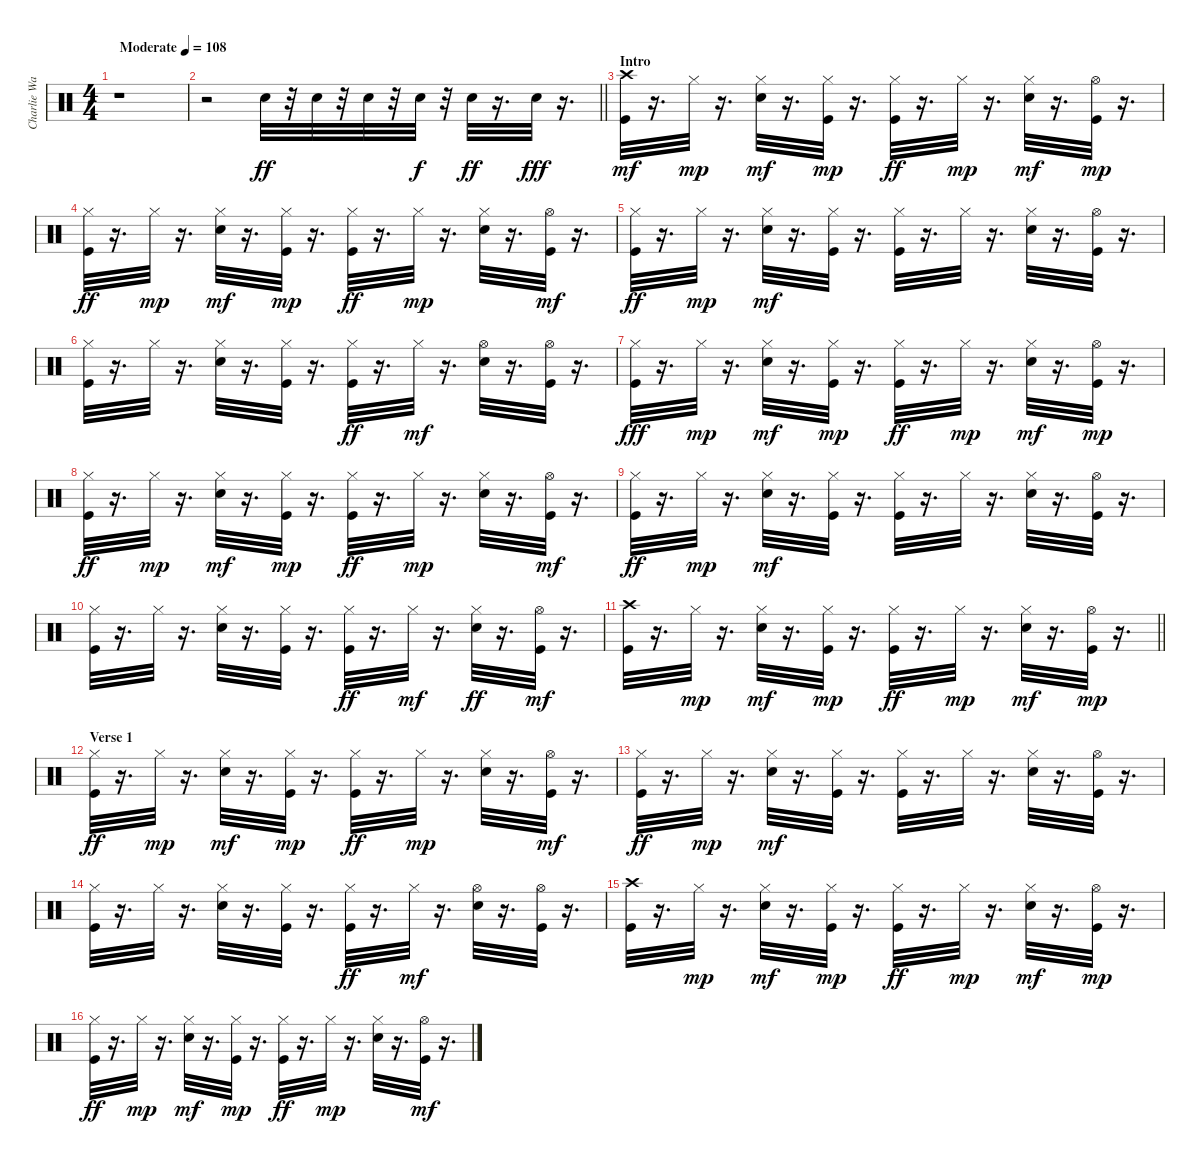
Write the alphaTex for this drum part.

\track ("Charlie Watts" "Charlie Wa") {instrument percussion}
\staff {score}
\articulation defaults
\ts (4 4)
\tempo (108 "Moderate")
\clef neutral
\ks c
r.1{dy ff} |
\barLineRight lightlight
r.2 "Electric Snare (hit)".32 r.32 "Electric Snare (hit)".32 r.32 "Electric Snare (hit)".32 r.32 "Electric Snare (hit)".32{dy f} r.32 "Electric Snare (hit)".32{dy ff} r.16{d} "Electric Snare (hit)".32{dy fff} r.16{d} |
\section ("" "Intro")
("Kick (hit)" "Crash high (hit)").32{dy mf} r.16{d} "Hi-Hat (closed)".32{dy mp} r.16{d} ("Electric Snare (hit)" "Hi-Hat (closed)").32{dy mf} r.16{d} ("Kick (hit)" "Hi-Hat (closed)").32{dy mp} r.16{d} ("Kick (hit)" "Hi-Hat (closed)").32{dy ff} r.16{d} "Hi-Hat (closed)".32{dy mp} r.16{d} ("Electric Snare (hit)" "Hi-Hat (closed)").32{dy mf} r.16{d} ("Kick (hit)" "Hi-Hat (open)").32{dy mp} r.16{d} |
("Kick (hit)" "Hi-Hat (closed)").32{dy ff} r.16{d} "Hi-Hat (closed)".32{dy mp} r.16{d} ("Electric Snare (hit)" "Hi-Hat (closed)").32{dy mf} r.16{d} ("Kick (hit)" "Hi-Hat (closed)").32{dy mp} r.16{d} ("Kick (hit)" "Hi-Hat (closed)").32{dy ff} r.16{d} "Hi-Hat (closed)".32{dy mp} r.16{d} ("Electric Snare (hit)" "Hi-Hat (closed)").32 r.16{d} ("Kick (hit)" "Hi-Hat (open)").32{dy mf} r.16{d} |
("Kick (hit)" "Hi-Hat (closed)").32{dy ff} r.16{d} "Hi-Hat (closed)".32{dy mp} r.16{d} ("Electric Snare (hit)" "Hi-Hat (closed)").32{dy mf} r.16{d} ("Kick (hit)" "Hi-Hat (closed)").32 r.16{d} ("Kick (hit)" "Hi-Hat (closed)").32 r.16{d} "Hi-Hat (closed)".32 r.16{d} ("Electric Snare (hit)" "Hi-Hat (closed)").32 r.16{d} ("Kick (hit)" "Hi-Hat (open)").32 r.16{d} |
("Kick (hit)" "Hi-Hat (closed)").32 r.16{d} "Hi-Hat (closed)".32 r.16{d} ("Electric Snare (hit)" "Hi-Hat (closed)").32 r.16{d} ("Kick (hit)" "Hi-Hat (closed)").32 r.16{d} ("Kick (hit)" "Hi-Hat (closed)").32{dy ff} r.16{d} "Hi-Hat (closed)".32{dy mf} r.16{d} ("Electric Snare (hit)" "Hi-Hat (open)").32 r.16{d} ("Kick (hit)" "Hi-Hat (open)").32 r.16{d} |
("Kick (hit)" "Hi-Hat (closed)").32{dy fff} r.16{d} "Hi-Hat (closed)".32{dy mp} r.16{d} ("Electric Snare (hit)" "Hi-Hat (closed)").32{dy mf} r.16{d} ("Kick (hit)" "Hi-Hat (closed)").32{dy mp} r.16{d} ("Kick (hit)" "Hi-Hat (closed)").32{dy ff} r.16{d} "Hi-Hat (closed)".32{dy mp} r.16{d} ("Electric Snare (hit)" "Hi-Hat (closed)").32{dy mf} r.16{d} ("Kick (hit)" "Hi-Hat (open)").32{dy mp} r.16{d} |
("Kick (hit)" "Hi-Hat (closed)").32{dy ff} r.16{d} "Hi-Hat (closed)".32{dy mp} r.16{d} ("Electric Snare (hit)" "Hi-Hat (closed)").32{dy mf} r.16{d} ("Kick (hit)" "Hi-Hat (closed)").32{dy mp} r.16{d} ("Kick (hit)" "Hi-Hat (closed)").32{dy ff} r.16{d} "Hi-Hat (closed)".32{dy mp} r.16{d} ("Electric Snare (hit)" "Hi-Hat (closed)").32 r.16{d} ("Kick (hit)" "Hi-Hat (open)").32{dy mf} r.16{d} |
("Kick (hit)" "Hi-Hat (closed)").32{dy ff} r.16{d} "Hi-Hat (closed)".32{dy mp} r.16{d} ("Electric Snare (hit)" "Hi-Hat (closed)").32{dy mf} r.16{d} ("Kick (hit)" "Hi-Hat (closed)").32 r.16{d} ("Kick (hit)" "Hi-Hat (closed)").32 r.16{d} "Hi-Hat (closed)".32 r.16{d} ("Electric Snare (hit)" "Hi-Hat (closed)").32 r.16{d} ("Kick (hit)" "Hi-Hat (open)").32 r.16{d} |
("Kick (hit)" "Hi-Hat (closed)").32 r.16{d} "Hi-Hat (closed)".32 r.16{d} ("Electric Snare (hit)" "Hi-Hat (closed)").32 r.16{d} ("Kick (hit)" "Hi-Hat (closed)").32 r.16{d} ("Kick (hit)" "Hi-Hat (closed)").32{dy ff} r.16{d} "Hi-Hat (closed)".32{dy mf} r.16{d} ("Electric Snare (hit)" "Hi-Hat (closed)").32{dy ff} r.16{d} ("Kick (hit)" "Hi-Hat (open)").32{dy mf} r.16{d} |
\barLineRight lightlight
("Kick (hit)" "Crash high (hit)").32 r.16{d} "Hi-Hat (closed)".32{dy mp} r.16{d} ("Electric Snare (hit)" "Hi-Hat (closed)").32{dy mf} r.16{d} ("Kick (hit)" "Hi-Hat (closed)").32{dy mp} r.16{d} ("Kick (hit)" "Hi-Hat (closed)").32{dy ff} r.16{d} "Hi-Hat (closed)".32{dy mp} r.16{d} ("Electric Snare (hit)" "Hi-Hat (closed)").32{dy mf} r.16{d} ("Kick (hit)" "Hi-Hat (open)").32{dy mp} r.16{d} |
\section ("" "Verse 1")
("Kick (hit)" "Hi-Hat (closed)").32{dy ff} r.16{d} "Hi-Hat (closed)".32{dy mp} r.16{d} ("Electric Snare (hit)" "Hi-Hat (closed)").32{dy mf} r.16{d} ("Kick (hit)" "Hi-Hat (closed)").32{dy mp} r.16{d} ("Kick (hit)" "Hi-Hat (closed)").32{dy ff} r.16{d} "Hi-Hat (closed)".32{dy mp} r.16{d} ("Electric Snare (hit)" "Hi-Hat (closed)").32 r.16{d} ("Kick (hit)" "Hi-Hat (open)").32{dy mf} r.16{d} |
("Kick (hit)" "Hi-Hat (closed)").32{dy ff} r.16{d} "Hi-Hat (closed)".32{dy mp} r.16{d} ("Electric Snare (hit)" "Hi-Hat (closed)").32{dy mf} r.16{d} ("Kick (hit)" "Hi-Hat (closed)").32 r.16{d} ("Kick (hit)" "Hi-Hat (closed)").32 r.16{d} "Hi-Hat (closed)".32 r.16{d} ("Electric Snare (hit)" "Hi-Hat (closed)").32 r.16{d} ("Kick (hit)" "Hi-Hat (open)").32 r.16{d} |
("Kick (hit)" "Hi-Hat (closed)").32 r.16{d} "Hi-Hat (closed)".32 r.16{d} ("Electric Snare (hit)" "Hi-Hat (closed)").32 r.16{d} ("Kick (hit)" "Hi-Hat (closed)").32 r.16{d} ("Kick (hit)" "Hi-Hat (closed)").32{dy ff} r.16{d} "Hi-Hat (closed)".32{dy mf} r.16{d} ("Electric Snare (hit)" "Hi-Hat (open)").32 r.16{d} ("Kick (hit)" "Hi-Hat (open)").32 r.16{d} |
("Kick (hit)" "Crash high (hit)").32 r.16{d} "Hi-Hat (closed)".32{dy mp} r.16{d} ("Electric Snare (hit)" "Hi-Hat (closed)").32{dy mf} r.16{d} ("Kick (hit)" "Hi-Hat (closed)").32{dy mp} r.16{d} ("Kick (hit)" "Hi-Hat (closed)").32{dy ff} r.16{d} "Hi-Hat (closed)".32{dy mp} r.16{d} ("Electric Snare (hit)" "Hi-Hat (closed)").32{dy mf} r.16{d} ("Kick (hit)" "Hi-Hat (open)").32{dy mp} r.16{d} |
("Kick (hit)" "Hi-Hat (closed)").32{dy ff} r.16{d} "Hi-Hat (closed)".32{dy mp} r.16{d} ("Electric Snare (hit)" "Hi-Hat (closed)").32{dy mf} r.16{d} ("Kick (hit)" "Hi-Hat (closed)").32{dy mp} r.16{d} ("Kick (hit)" "Hi-Hat (closed)").32{dy ff} r.16{d} "Hi-Hat (closed)".32{dy mp} r.16{d} ("Electric Snare (hit)" "Hi-Hat (closed)").32 r.16{d} ("Kick (hit)" "Hi-Hat (open)").32{dy mf} r.16{d}
